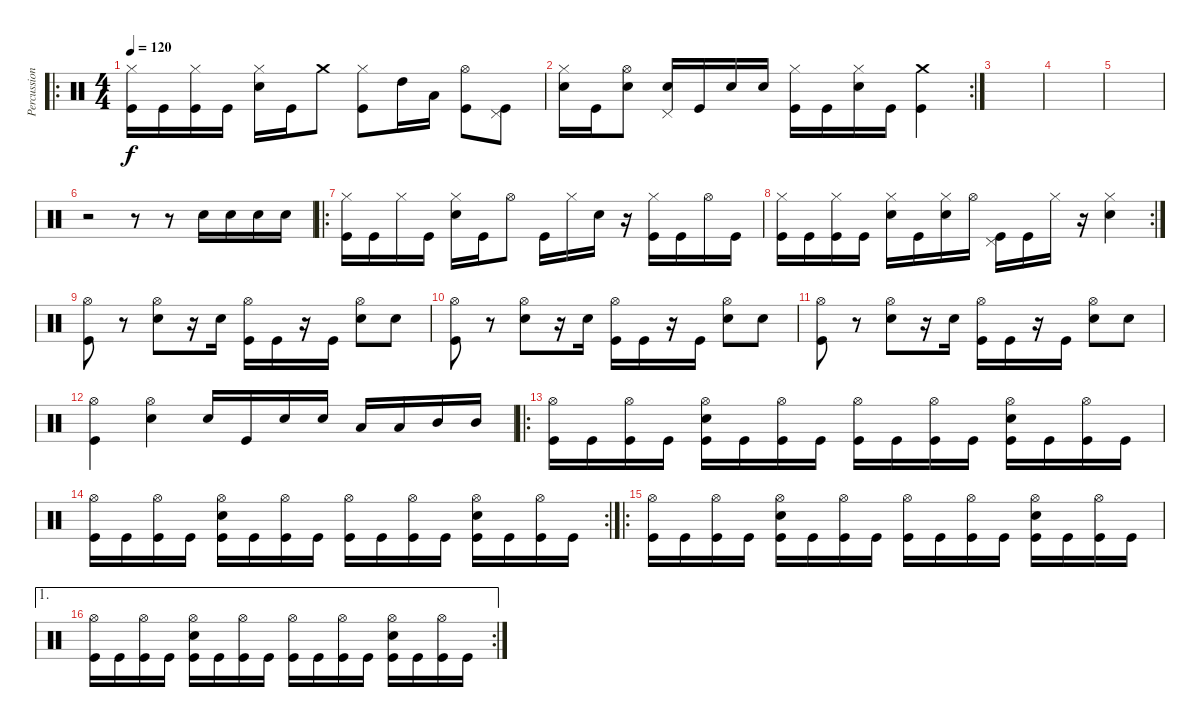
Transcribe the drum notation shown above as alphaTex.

\track ("Percussion" "Percussion") {instrument percussion}
\staff {score}
\articulation defaults
\ro
\ts (4 4)
\tempo 120
\clef neutral
\ks c
("Hi-Hat (closed)" "Kick (hit)").16{dy f} "Kick (hit)".16 ("Hi-Hat (closed)" "Kick (hit)").16 "Kick (hit)".16 ("Hi-Hat (closed)" "Snare (hit) 2").16 "Kick (hit)".16 "Crash medium (hit)".8 ("Hi-Hat (closed)" "Kick (hit)").8 "High Tom (hit)".16 "Low Tom (hit)".16 ("Hi-Hat (open)" "Kick (hit)").8 ("Pedal Hi-Hat (hit)" "Kick (hit)").8 |
\rc 2
("Hi-Hat (closed)" "Snare (hit) 2").16 "Kick (hit)".16 ("Hi-Hat (open)" "Snare (hit) 2").8 ("Pedal Hi-Hat (hit)" "Snare (hit) 2").16 "Kick (hit)".16 "Snare (hit) 2".16 "Snare (hit) 2".16 ("Hi-Hat (closed)" "Kick (hit)").16 "Kick (hit)".16 ("Hi-Hat (closed)" "Snare (hit) 2").16 "Kick (hit)".16 ("Crash medium (hit)" "Kick (hit)").4 |
|
|
|
r.2 r.8 r.8 "Snare (hit) 2".16 "Snare (hit) 2".16 "Snare (hit) 2".16 "Snare (hit) 2".16 |
\ro
("Hi-Hat (closed)" "Kick (hit)").16 "Kick (hit)".16 "Hi-Hat (closed)".16 "Kick (hit)".16 ("Hi-Hat (closed)" "Snare (hit) 2").16 "Kick (hit)".16 "Hi-Hat (open)".8 "Kick (hit)".16 "Hi-Hat (closed)".16 "Snare (hit) 2".16 r.16 ("Hi-Hat (closed)" "Kick (hit)").16 "Kick (hit)".16 "Hi-Hat (open)".16 "Kick (hit)".16 |
\rc 2
("Hi-Hat (closed)" "Kick (hit)").16 "Kick (hit)".16 ("Hi-Hat (closed)" "Kick (hit)").16 "Kick (hit)".16 ("Hi-Hat (closed)" "Snare (hit) 2").16 "Kick (hit)".16 ("Hi-Hat (closed)" "Snare (hit) 2").16 "Hi-Hat (open)".16 ("Pedal Hi-Hat (hit)" "Kick (hit)").16 "Kick (hit)".16 "Hi-Hat (closed)".16 r.16 ("Hi-Hat (closed)" "Snare (hit) 2").4 |
("Hi-Hat (open)" "Kick (hit)").8 r.8 ("Hi-Hat (open)" "Snare (hit) 2").8 r.16 "Snare (hit) 2".16 ("Hi-Hat (open)" "Kick (hit)").16 "Kick (hit)".16 r.16 "Kick (hit)".16 ("Hi-Hat (open)" "Snare (hit) 2").8 "Snare (hit) 2".8 |
("Hi-Hat (open)" "Kick (hit)").8 r.8 ("Hi-Hat (open)" "Snare (hit) 2").8 r.16 "Snare (hit) 2".16 ("Hi-Hat (open)" "Kick (hit)").16 "Kick (hit)".16 r.16 "Kick (hit)".16 ("Hi-Hat (open)" "Snare (hit) 2").8 "Snare (hit) 2".8 |
("Hi-Hat (open)" "Kick (hit)").8 r.8 ("Hi-Hat (open)" "Snare (hit) 2").8 r.16 "Snare (hit) 2".16 ("Hi-Hat (open)" "Kick (hit)").16 "Kick (hit)".16 r.16 "Kick (hit)".16 ("Hi-Hat (open)" "Snare (hit) 2").8 "Snare (hit) 2".8 |
("Hi-Hat (open)" "Kick (hit)").4 ("Hi-Hat (open)" "Snare (hit) 2").4 "Snare (hit) 2".16 "Kick (hit)".16 "Snare (hit) 2".16 "Snare (hit) 2".16 "Low Tom (hit)".16 "Low Tom (hit)".16 "Mid Tom (hit)".16 "Mid Tom (hit)".16 |
\ro
("Hi-Hat (open)" "Kick (hit)").16 "Kick (hit)".16 ("Hi-Hat (open)" "Kick (hit)").16 "Kick (hit)".16 ("Hi-Hat (open)" "Snare (hit) 2" "Kick (hit)").16 "Kick (hit)".16 ("Hi-Hat (open)" "Kick (hit)").16 "Kick (hit)".16 ("Hi-Hat (open)" "Kick (hit)").16 "Kick (hit)".16 ("Hi-Hat (open)" "Kick (hit)").16 "Kick (hit)".16 ("Hi-Hat (open)" "Snare (hit) 2" "Kick (hit)").16 "Kick (hit)".16 ("Hi-Hat (open)" "Kick (hit)").16 "Kick (hit)".16 |
\rc 2
("Hi-Hat (open)" "Kick (hit)").16 "Kick (hit)".16 ("Hi-Hat (open)" "Kick (hit)").16 "Kick (hit)".16 ("Hi-Hat (open)" "Snare (hit) 2" "Kick (hit)").16 "Kick (hit)".16 ("Hi-Hat (open)" "Kick (hit)").16 "Kick (hit)".16 ("Hi-Hat (open)" "Kick (hit)").16 "Kick (hit)".16 ("Hi-Hat (open)" "Kick (hit)").16 "Kick (hit)".16 ("Hi-Hat (open)" "Snare (hit) 2" "Kick (hit)").16 "Kick (hit)".16 ("Hi-Hat (open)" "Kick (hit)").16 "Kick (hit)".16 |
\ro
("Hi-Hat (open)" "Kick (hit)").16 "Kick (hit)".16 ("Hi-Hat (open)" "Kick (hit)").16 "Kick (hit)".16 ("Hi-Hat (open)" "Snare (hit) 2" "Kick (hit)").16 "Kick (hit)".16 ("Hi-Hat (open)" "Kick (hit)").16 "Kick (hit)".16 ("Hi-Hat (open)" "Kick (hit)").16 "Kick (hit)".16 ("Hi-Hat (open)" "Kick (hit)").16 "Kick (hit)".16 ("Hi-Hat (open)" "Snare (hit) 2" "Kick (hit)").16 "Kick (hit)".16 ("Hi-Hat (open)" "Kick (hit)").16 "Kick (hit)".16 |
\ae 1
\rc 2
("Hi-Hat (open)" "Kick (hit)").16 "Kick (hit)".16 ("Hi-Hat (open)" "Kick (hit)").16 "Kick (hit)".16 ("Hi-Hat (open)" "Snare (hit) 2" "Kick (hit)").16 "Kick (hit)".16 ("Hi-Hat (open)" "Kick (hit)").16 "Kick (hit)".16 ("Hi-Hat (open)" "Kick (hit)").16 "Kick (hit)".16 ("Hi-Hat (open)" "Kick (hit)").16 "Kick (hit)".16 ("Hi-Hat (open)" "Snare (hit) 2" "Kick (hit)").16 "Kick (hit)".16 ("Hi-Hat (open)" "Kick (hit)").16 "Kick (hit)".16
